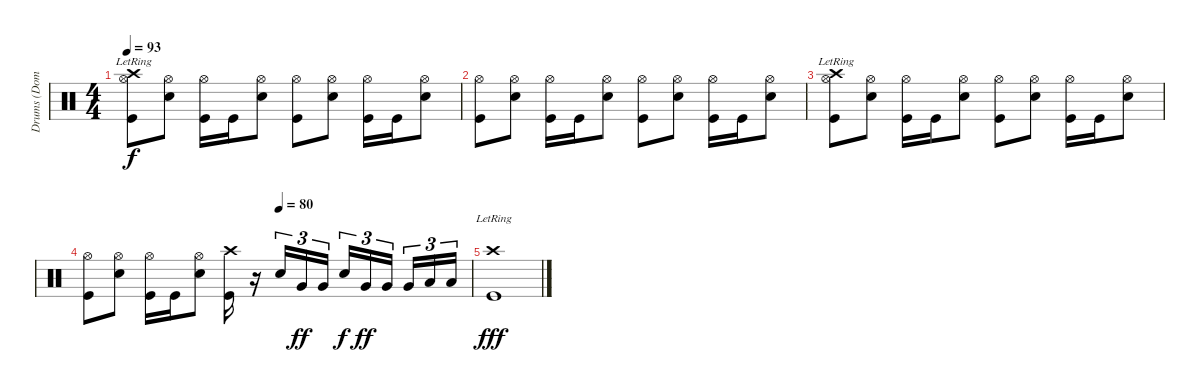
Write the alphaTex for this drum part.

\track ("Drums (Dominic Howard)" "Drums (Dom") {instrument percussion}
\staff {score}
\articulation defaults
\ts (4 4)
\tempo 93
\clef neutral
\ks c
("Crash high (hit)"{lr} "Hi-Hat (open)" "Kick (hit)").8{dy f} ("Hi-Hat (open)" "Snare (hit) 2").8 ("Hi-Hat (open)" "Kick (hit)").16 "Kick (hit)".16 ("Hi-Hat (open)" "Snare (hit) 2").8 ("Hi-Hat (open)" "Kick (hit)").8 ("Hi-Hat (open)" "Snare (hit) 2").8 ("Hi-Hat (open)" "Kick (hit)").16 "Kick (hit)".16 ("Hi-Hat (open)" "Snare (hit) 2").8 |
("Hi-Hat (open)" "Kick (hit)").8 ("Hi-Hat (open)" "Snare (hit) 2").8 ("Hi-Hat (open)" "Kick (hit)").16 "Kick (hit)".16 ("Hi-Hat (open)" "Snare (hit) 2").8 ("Hi-Hat (open)" "Kick (hit)").8 ("Hi-Hat (open)" "Snare (hit) 2").8 ("Hi-Hat (open)" "Kick (hit)").16 "Kick (hit)".16 ("Hi-Hat (open)" "Snare (hit) 2").8 |
("Crash high (hit)"{lr} "Hi-Hat (open)" "Kick (hit)").8 ("Hi-Hat (open)" "Snare (hit) 2").8 ("Hi-Hat (open)" "Kick (hit)").16 "Kick (hit)".16 ("Hi-Hat (open)" "Snare (hit) 2").8 ("Hi-Hat (open)" "Kick (hit)").8 ("Hi-Hat (open)" "Snare (hit) 2").8 ("Hi-Hat (open)" "Kick (hit)").16 "Kick (hit)".16 ("Hi-Hat (open)" "Snare (hit) 2").8 |
\tempo (80 0.5)
("Hi-Hat (open)" "Kick (hit)").8 ("Hi-Hat (open)" "Snare (hit) 2").8 ("Hi-Hat (open)" "Kick (hit)").16 "Kick (hit)".16 ("Hi-Hat (open)" "Snare (hit) 2").8 ("Crash high (hit)" "Kick (hit)").16 r.16 "Snare (hit) 2".16{tu (3 2)} "Very Low Tom (hit)".16{tu (3 2) dy ff} "Very Low Tom (hit)".16{tu (3 2)} "Snare (hit) 2".16{tu (3 2) dy f} "Very Low Tom (hit)".16{tu (3 2) dy ff} "Very Low Tom (hit)".16{tu (3 2)} "Very Low Tom (hit)".16{tu (3 2)} "Low Floor Tom (hit)".16{tu (3 2)} "Low Floor Tom (hit)".16{tu (3 2)} |
("Crash high (hit)"{lr} "Kick (hit)").1{dy fff}
